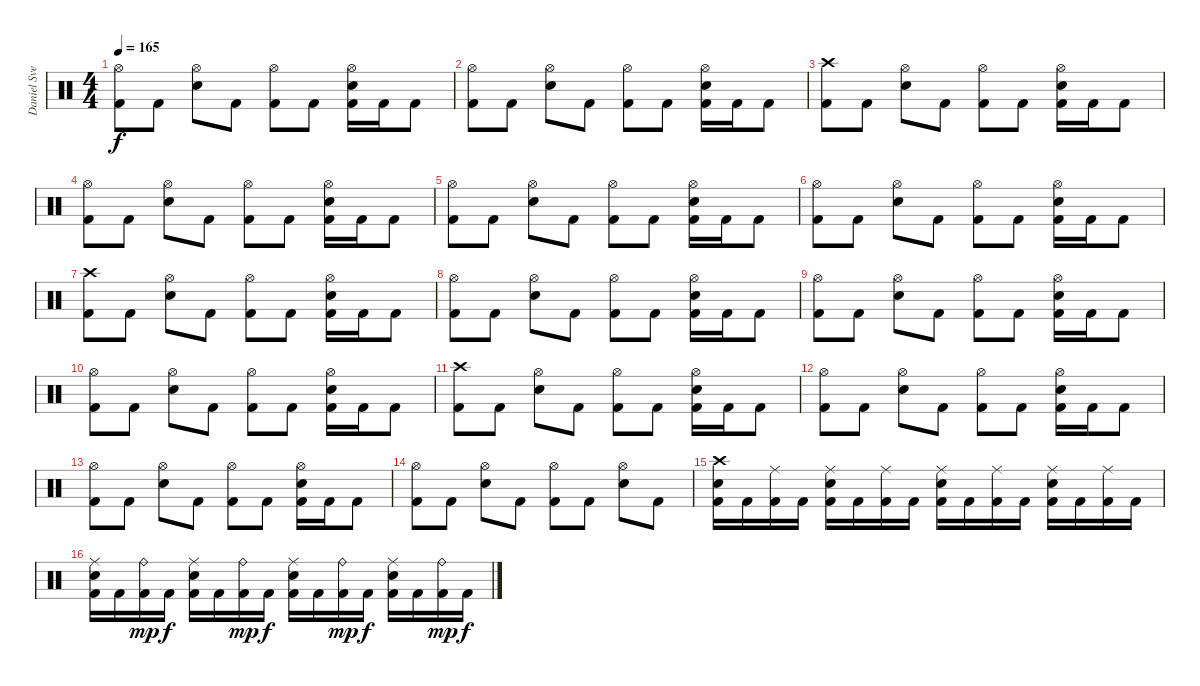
\track ("Daniel Svensson" "Daniel Sve") {instrument percussion}
\staff {score}
\articulation defaults
\ts (4 4)
\tempo 165
\clef neutral
\ks c
("Hi-Hat (open)" "Kick (hit) 2").8{dy f} "Kick (hit) 2".8 ("Hi-Hat (open)" "Electric Snare (hit)").8 "Kick (hit) 2".8 ("Hi-Hat (open)" "Kick (hit) 2").8 "Kick (hit) 2".8 ("Hi-Hat (open)" "Electric Snare (hit)" "Kick (hit) 2").16 "Kick (hit) 2".16 "Kick (hit) 2".8 |
("Hi-Hat (open)" "Kick (hit) 2").8 "Kick (hit) 2".8 ("Hi-Hat (open)" "Electric Snare (hit)").8 "Kick (hit) 2".8 ("Hi-Hat (open)" "Kick (hit) 2").8 "Kick (hit) 2".8 ("Hi-Hat (open)" "Electric Snare (hit)" "Kick (hit) 2").16 "Kick (hit) 2".16 "Kick (hit) 2".8 |
("Crash high (hit)" "Kick (hit) 2").8 "Kick (hit) 2".8 ("Hi-Hat (open)" "Electric Snare (hit)").8 "Kick (hit) 2".8 ("Hi-Hat (open)" "Kick (hit) 2").8 "Kick (hit) 2".8 ("Hi-Hat (open)" "Electric Snare (hit)" "Kick (hit) 2").16 "Kick (hit) 2".16 "Kick (hit) 2".8 |
("Hi-Hat (open)" "Kick (hit) 2").8 "Kick (hit) 2".8 ("Hi-Hat (open)" "Electric Snare (hit)").8 "Kick (hit) 2".8 ("Hi-Hat (open)" "Kick (hit) 2").8 "Kick (hit) 2".8 ("Hi-Hat (open)" "Electric Snare (hit)" "Kick (hit) 2").16 "Kick (hit) 2".16 "Kick (hit) 2".8 |
("Hi-Hat (open)" "Kick (hit) 2").8 "Kick (hit) 2".8 ("Hi-Hat (open)" "Electric Snare (hit)").8 "Kick (hit) 2".8 ("Hi-Hat (open)" "Kick (hit) 2").8 "Kick (hit) 2".8 ("Hi-Hat (open)" "Electric Snare (hit)" "Kick (hit) 2").16 "Kick (hit) 2".16 "Kick (hit) 2".8 |
("Hi-Hat (open)" "Kick (hit) 2").8 "Kick (hit) 2".8 ("Hi-Hat (open)" "Electric Snare (hit)").8 "Kick (hit) 2".8 ("Hi-Hat (open)" "Kick (hit) 2").8 "Kick (hit) 2".8 ("Hi-Hat (open)" "Electric Snare (hit)" "Kick (hit) 2").16 "Kick (hit) 2".16 "Kick (hit) 2".8 |
("Crash high (hit)" "Kick (hit) 2").8 "Kick (hit) 2".8 ("Hi-Hat (open)" "Electric Snare (hit)").8 "Kick (hit) 2".8 ("Hi-Hat (open)" "Kick (hit) 2").8 "Kick (hit) 2".8 ("Hi-Hat (open)" "Electric Snare (hit)" "Kick (hit) 2").16 "Kick (hit) 2".16 "Kick (hit) 2".8 |
("Hi-Hat (open)" "Kick (hit) 2").8 "Kick (hit) 2".8 ("Hi-Hat (open)" "Electric Snare (hit)").8 "Kick (hit) 2".8 ("Hi-Hat (open)" "Kick (hit) 2").8 "Kick (hit) 2".8 ("Hi-Hat (open)" "Electric Snare (hit)" "Kick (hit) 2").16 "Kick (hit) 2".16 "Kick (hit) 2".8 |
("Hi-Hat (open)" "Kick (hit) 2").8 "Kick (hit) 2".8 ("Hi-Hat (open)" "Electric Snare (hit)").8 "Kick (hit) 2".8 ("Hi-Hat (open)" "Kick (hit) 2").8 "Kick (hit) 2".8 ("Hi-Hat (open)" "Electric Snare (hit)" "Kick (hit) 2").16 "Kick (hit) 2".16 "Kick (hit) 2".8 |
("Hi-Hat (open)" "Kick (hit) 2").8 "Kick (hit) 2".8 ("Hi-Hat (open)" "Electric Snare (hit)").8 "Kick (hit) 2".8 ("Hi-Hat (open)" "Kick (hit) 2").8 "Kick (hit) 2".8 ("Hi-Hat (open)" "Electric Snare (hit)" "Kick (hit) 2").16 "Kick (hit) 2".16 "Kick (hit) 2".8 |
("Crash high (hit)" "Kick (hit) 2").8 "Kick (hit) 2".8 ("Hi-Hat (open)" "Electric Snare (hit)").8 "Kick (hit) 2".8 ("Hi-Hat (open)" "Kick (hit) 2").8 "Kick (hit) 2".8 ("Hi-Hat (open)" "Electric Snare (hit)" "Kick (hit) 2").16 "Kick (hit) 2".16 "Kick (hit) 2".8 |
("Hi-Hat (open)" "Kick (hit) 2").8 "Kick (hit) 2".8 ("Hi-Hat (open)" "Electric Snare (hit)").8 "Kick (hit) 2".8 ("Hi-Hat (open)" "Kick (hit) 2").8 "Kick (hit) 2".8 ("Hi-Hat (open)" "Electric Snare (hit)" "Kick (hit) 2").16 "Kick (hit) 2".16 "Kick (hit) 2".8 |
("Hi-Hat (open)" "Kick (hit) 2").8 "Kick (hit) 2".8 ("Hi-Hat (open)" "Electric Snare (hit)").8 "Kick (hit) 2".8 ("Hi-Hat (open)" "Kick (hit) 2").8 "Kick (hit) 2".8 ("Hi-Hat (open)" "Electric Snare (hit)" "Kick (hit) 2").16 "Kick (hit) 2".16 "Kick (hit) 2".8 |
("Hi-Hat (open)" "Kick (hit) 2").8 "Kick (hit) 2".8 ("Hi-Hat (open)" "Electric Snare (hit)").8 "Kick (hit) 2".8 ("Hi-Hat (open)" "Kick (hit) 2").8 "Kick (hit) 2".8 ("Hi-Hat (open)" "Electric Snare (hit)").8 "Kick (hit) 2".8 |
("Crash high (hit)" "Electric Snare (hit)" "Kick (hit) 2").16 "Kick (hit) 2".16 ("Ride (middle)" "Kick (hit) 2").16 "Kick (hit) 2".16 ("Ride (middle)" "Electric Snare (hit)" "Kick (hit) 2").16 "Kick (hit) 2".16 ("Ride (middle)" "Kick (hit) 2").16 "Kick (hit) 2".16 ("Ride (middle)" "Electric Snare (hit)" "Kick (hit) 2").16 "Kick (hit) 2".16 ("Ride (middle)" "Kick (hit) 2").16 "Kick (hit) 2".16 ("Ride (middle)" "Electric Snare (hit)" "Kick (hit) 2").16 "Kick (hit) 2".16 ("Ride (middle)" "Kick (hit) 2").16 "Kick (hit) 2".16 |
("Ride (middle)" "Electric Snare (hit)" "Kick (hit) 2").16 "Kick (hit) 2".16 ("Ride (bell)" "Kick (hit) 2").16{dy mp} "Kick (hit) 2".16{dy f} ("Ride (middle)" "Electric Snare (hit)" "Kick (hit) 2").16 "Kick (hit) 2".16 ("Ride (bell)" "Kick (hit) 2").16{dy mp} "Kick (hit) 2".16{dy f} ("Ride (middle)" "Electric Snare (hit)" "Kick (hit) 2").16 "Kick (hit) 2".16 ("Ride (bell)" "Kick (hit) 2").16{dy mp} "Kick (hit) 2".16{dy f} ("Ride (middle)" "Electric Snare (hit)" "Kick (hit) 2").16 "Kick (hit) 2".16 ("Ride (bell)" "Kick (hit) 2").16{dy mp} "Kick (hit) 2".16{dy f}
